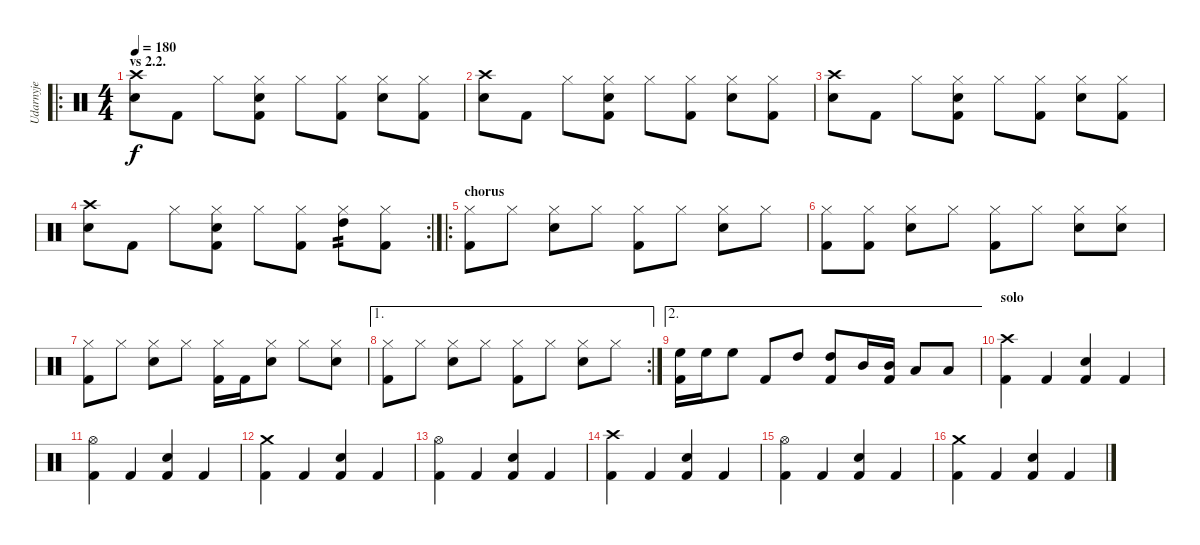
\track ("Udarnyje" "Udarnyje") {instrument percussion}
\staff {score}
\articulation defaults
\ro
\ts (4 4)
\section ("" "vs 2.2.")
\tempo 180
\clef neutral
\ks c
("Crash high (hit)" "Electric Snare (hit)").8{dy f} "Kick (hit) 2".8 "Hi-Hat (closed)".8 ("Hi-Hat (closed)" "Electric Snare (hit)" "Kick (hit) 2").8 "Hi-Hat (closed)".8 ("Hi-Hat (closed)" "Kick (hit) 2").8 ("Hi-Hat (closed)" "Electric Snare (hit)").8 ("Hi-Hat (closed)" "Kick (hit) 2").8 |
("Crash high (hit)" "Electric Snare (hit)").8 "Kick (hit) 2".8 "Hi-Hat (closed)".8 ("Hi-Hat (closed)" "Electric Snare (hit)" "Kick (hit) 2").8 "Hi-Hat (closed)".8 ("Hi-Hat (closed)" "Kick (hit) 2").8 ("Hi-Hat (closed)" "Electric Snare (hit)").8 ("Hi-Hat (closed)" "Kick (hit) 2").8 |
("Crash high (hit)" "Electric Snare (hit)").8 "Kick (hit) 2".8 "Hi-Hat (closed)".8 ("Hi-Hat (closed)" "Electric Snare (hit)" "Kick (hit) 2").8 "Hi-Hat (closed)".8 ("Hi-Hat (closed)" "Kick (hit) 2").8 ("Hi-Hat (closed)" "Electric Snare (hit)").8 ("Hi-Hat (closed)" "Kick (hit) 2").8 |
\rc 2
("Crash high (hit)" "Electric Snare (hit)").8 "Kick (hit) 2".8 "Hi-Hat (closed)".8 ("Hi-Hat (closed)" "Electric Snare (hit)" "Kick (hit) 2").8 "Hi-Hat (closed)".8 ("Hi-Hat (closed)" "Kick (hit) 2").8 ("Hi-Hat (closed)" "High Tom (hit)").8{tp 2} ("Hi-Hat (closed)" "Kick (hit) 2").8 |
\ro
\section ("" "chorus")
("Hi-Hat (closed)" "Kick (hit) 2").8 "Hi-Hat (closed)".8 ("Hi-Hat (closed)" "Electric Snare (hit)").8 "Hi-Hat (closed)".8 ("Hi-Hat (closed)" "Kick (hit) 2").8 "Hi-Hat (closed)".8 ("Hi-Hat (closed)" "Electric Snare (hit)").8 "Hi-Hat (closed)".8 |
("Hi-Hat (closed)" "Kick (hit) 2").8 ("Hi-Hat (closed)" "Kick (hit) 2").8 ("Hi-Hat (closed)" "Electric Snare (hit)").8 "Hi-Hat (closed)".8 ("Hi-Hat (closed)" "Kick (hit) 2").8 "Hi-Hat (closed)".8 ("Hi-Hat (closed)" "Electric Snare (hit)").8 ("Hi-Hat (closed)" "Electric Snare (hit)").8 |
("Hi-Hat (closed)" "Kick (hit) 2").8 "Hi-Hat (closed)".8 ("Hi-Hat (closed)" "Electric Snare (hit)").8 "Hi-Hat (closed)".8 ("Hi-Hat (closed)" "Kick (hit) 2").16 "Kick (hit) 2".16 ("Hi-Hat (closed)" "Electric Snare (hit)").8 "Hi-Hat (closed)".8 ("Hi-Hat (closed)" "Electric Snare (hit)").8 |
\ae 1
\rc 2
("Hi-Hat (closed)" "Kick (hit) 2").8 "Hi-Hat (closed)".8 ("Hi-Hat (closed)" "Electric Snare (hit)").8 "Hi-Hat (closed)".8 ("Hi-Hat (closed)" "Kick (hit) 2").8 "Hi-Hat (closed)".8 ("Hi-Hat (closed)" "Electric Snare (hit)").8 "Hi-Hat (closed)".8 |
\ae 2
("High Floor Tom (hit)" "Kick (hit) 2").16 "High Floor Tom (hit)".16 "High Floor Tom (hit)".8 "Kick (hit) 2".8 "High Tom (hit)".8 ("High Tom (hit)" "Kick (hit) 2").8 "Mid Tom (hit)".16 ("Mid Tom (hit)" "Kick (hit) 2").16 "Low Tom (hit)".8 "Low Tom (hit)".8 |
\section ("" "solo")
("Crash high (hit)" "Kick (hit) 2").4 "Kick (hit) 2".4 ("Electric Snare (hit)" "Kick (hit) 2").4 "Kick (hit) 2".4 |
("Hi-Hat (open)" "Kick (hit) 2").4 "Kick (hit) 2".4 ("Electric Snare (hit)" "Kick (hit) 2").4 "Kick (hit) 2".4 |
("Crash medium (hit)" "Kick (hit) 2").4 "Kick (hit) 2".4 ("Electric Snare (hit)" "Kick (hit) 2").4 "Kick (hit) 2".4 |
("Hi-Hat (open)" "Kick (hit) 2").4 "Kick (hit) 2".4 ("Electric Snare (hit)" "Kick (hit) 2").4 "Kick (hit) 2".4 |
("Crash high (hit)" "Kick (hit) 2").4 "Kick (hit) 2".4 ("Electric Snare (hit)" "Kick (hit) 2").4 "Kick (hit) 2".4 |
("Hi-Hat (open)" "Kick (hit) 2").4 "Kick (hit) 2".4 ("Electric Snare (hit)" "Kick (hit) 2").4 "Kick (hit) 2".4 |
("Crash medium (hit)" "Kick (hit) 2").4 "Kick (hit) 2".4 ("Electric Snare (hit)" "Kick (hit) 2").4 "Kick (hit) 2".4
